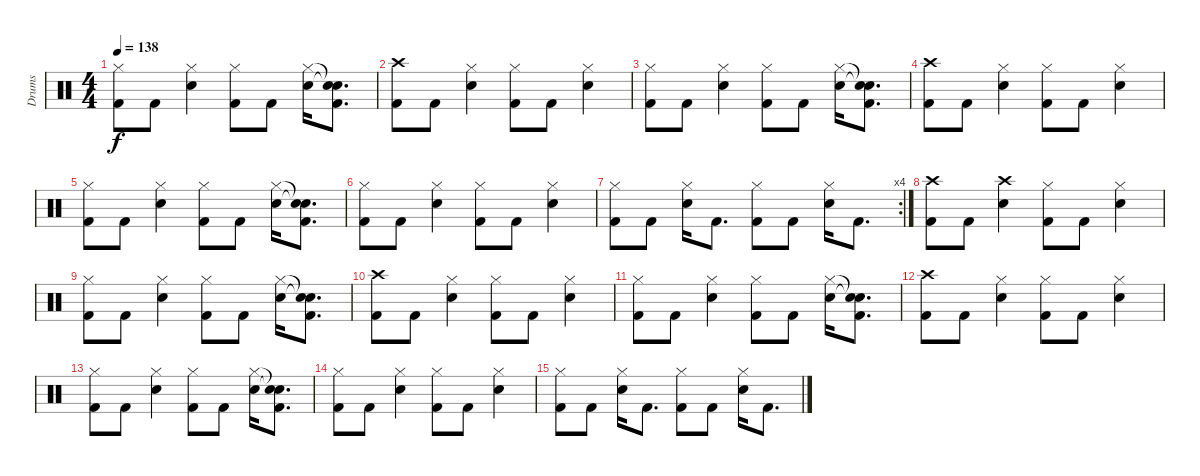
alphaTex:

\track ("Drums" "Drums") {instrument percussion}
\staff {score}
\articulation defaults
\ts (4 4)
\tempo 138
\clef neutral
\ks c
("Hi-Hat (closed)" "Kick (hit) 2").8{dy f} "Kick (hit) 2".8 ("Hi-Hat (closed)" "Snare (hit) 2").4 ("Hi-Hat (closed)" "Kick (hit) 2").8 "Kick (hit) 2".8 ("Hi-Hat (closed)" "Snare (hit) 2").16 ("Snare (hit)"{t} "Snare (hit)"{t} "Kick (hit) 2").8{d} |
("Crash high (hit)" "Kick (hit) 2").8 "Kick (hit) 2".8 ("Hi-Hat (closed)" "Snare (hit) 2").4 ("Hi-Hat (closed)" "Kick (hit) 2").8 "Kick (hit) 2".8 ("Hi-Hat (closed)" "Snare (hit) 2").4 |
("Hi-Hat (closed)" "Kick (hit) 2").8 "Kick (hit) 2".8 ("Hi-Hat (closed)" "Snare (hit) 2").4 ("Hi-Hat (closed)" "Kick (hit) 2").8 "Kick (hit) 2".8 ("Hi-Hat (closed)" "Snare (hit) 2").16 ("Snare (hit)"{t} "Snare (hit)"{t} "Kick (hit) 2").8{d} |
("Crash high (hit)" "Kick (hit) 2").8 "Kick (hit) 2".8 ("Hi-Hat (closed)" "Snare (hit) 2").4 ("Hi-Hat (closed)" "Kick (hit) 2").8 "Kick (hit) 2".8 ("Hi-Hat (closed)" "Snare (hit) 2").4 |
("Hi-Hat (closed)" "Kick (hit) 2").8 "Kick (hit) 2".8 ("Hi-Hat (closed)" "Snare (hit) 2").4 ("Hi-Hat (closed)" "Kick (hit) 2").8 "Kick (hit) 2".8 ("Hi-Hat (closed)" "Snare (hit) 2").16 ("Snare (hit)"{t} "Snare (hit)"{t} "Kick (hit) 2").8{d} |
("Hi-Hat (closed)" "Kick (hit) 2").8 "Kick (hit) 2".8 ("Hi-Hat (closed)" "Snare (hit) 2").4 ("Hi-Hat (closed)" "Kick (hit) 2").8 "Kick (hit) 2".8 ("Hi-Hat (closed)" "Snare (hit) 2").4 |
\rc 4
("Hi-Hat (closed)" "Kick (hit) 2").8 "Kick (hit) 2".8 ("Hi-Hat (closed)" "Snare (hit) 2").16 "Kick (hit) 2".8{d} ("Hi-Hat (closed)" "Kick (hit) 2").8 "Kick (hit) 2".8 ("Hi-Hat (closed)" "Snare (hit) 2").16 "Kick (hit) 2".8{d} |
("Crash high (hit)" "Kick (hit) 2").8 "Kick (hit) 2".8 ("Crash high (hit)" "Snare (hit) 2").4 ("Hi-Hat (closed)" "Kick (hit) 2").8 "Kick (hit) 2".8 ("Hi-Hat (closed)" "Snare (hit) 2").4 |
("Hi-Hat (closed)" "Kick (hit) 2").8 "Kick (hit) 2".8 ("Hi-Hat (closed)" "Snare (hit) 2").4 ("Hi-Hat (closed)" "Kick (hit) 2").8 "Kick (hit) 2".8 ("Hi-Hat (closed)" "Snare (hit) 2").16 ("Snare (hit)"{t} "Snare (hit)"{t} "Kick (hit) 2").8{d} |
("Crash high (hit)" "Kick (hit) 2").8 "Kick (hit) 2".8 ("Hi-Hat (closed)" "Snare (hit) 2").4 ("Hi-Hat (closed)" "Kick (hit) 2").8 "Kick (hit) 2".8 ("Hi-Hat (closed)" "Snare (hit) 2").4 |
("Hi-Hat (closed)" "Kick (hit) 2").8 "Kick (hit) 2".8 ("Hi-Hat (closed)" "Snare (hit) 2").4 ("Hi-Hat (closed)" "Kick (hit) 2").8 "Kick (hit) 2".8 ("Hi-Hat (closed)" "Snare (hit) 2").16 ("Snare (hit)"{t} "Snare (hit)"{t} "Kick (hit) 2").8{d} |
("Crash high (hit)" "Kick (hit) 2").8 "Kick (hit) 2".8 ("Hi-Hat (closed)" "Snare (hit) 2").4 ("Hi-Hat (closed)" "Kick (hit) 2").8 "Kick (hit) 2".8 ("Hi-Hat (closed)" "Snare (hit) 2").4 |
("Hi-Hat (closed)" "Kick (hit) 2").8 "Kick (hit) 2".8 ("Hi-Hat (closed)" "Snare (hit) 2").4 ("Hi-Hat (closed)" "Kick (hit) 2").8 "Kick (hit) 2".8 ("Hi-Hat (closed)" "Snare (hit) 2").16 ("Snare (hit)"{t} "Snare (hit)"{t} "Kick (hit) 2").8{d} |
("Hi-Hat (closed)" "Kick (hit) 2").8 "Kick (hit) 2".8 ("Hi-Hat (closed)" "Snare (hit) 2").4 ("Hi-Hat (closed)" "Kick (hit) 2").8 "Kick (hit) 2".8 ("Hi-Hat (closed)" "Snare (hit) 2").4 |
("Hi-Hat (closed)" "Kick (hit) 2").8 "Kick (hit) 2".8 ("Hi-Hat (closed)" "Snare (hit) 2").16 "Kick (hit) 2".8{d} ("Hi-Hat (closed)" "Kick (hit) 2").8 "Kick (hit) 2".8 ("Hi-Hat (closed)" "Snare (hit) 2").16 "Kick (hit) 2".8{d}
